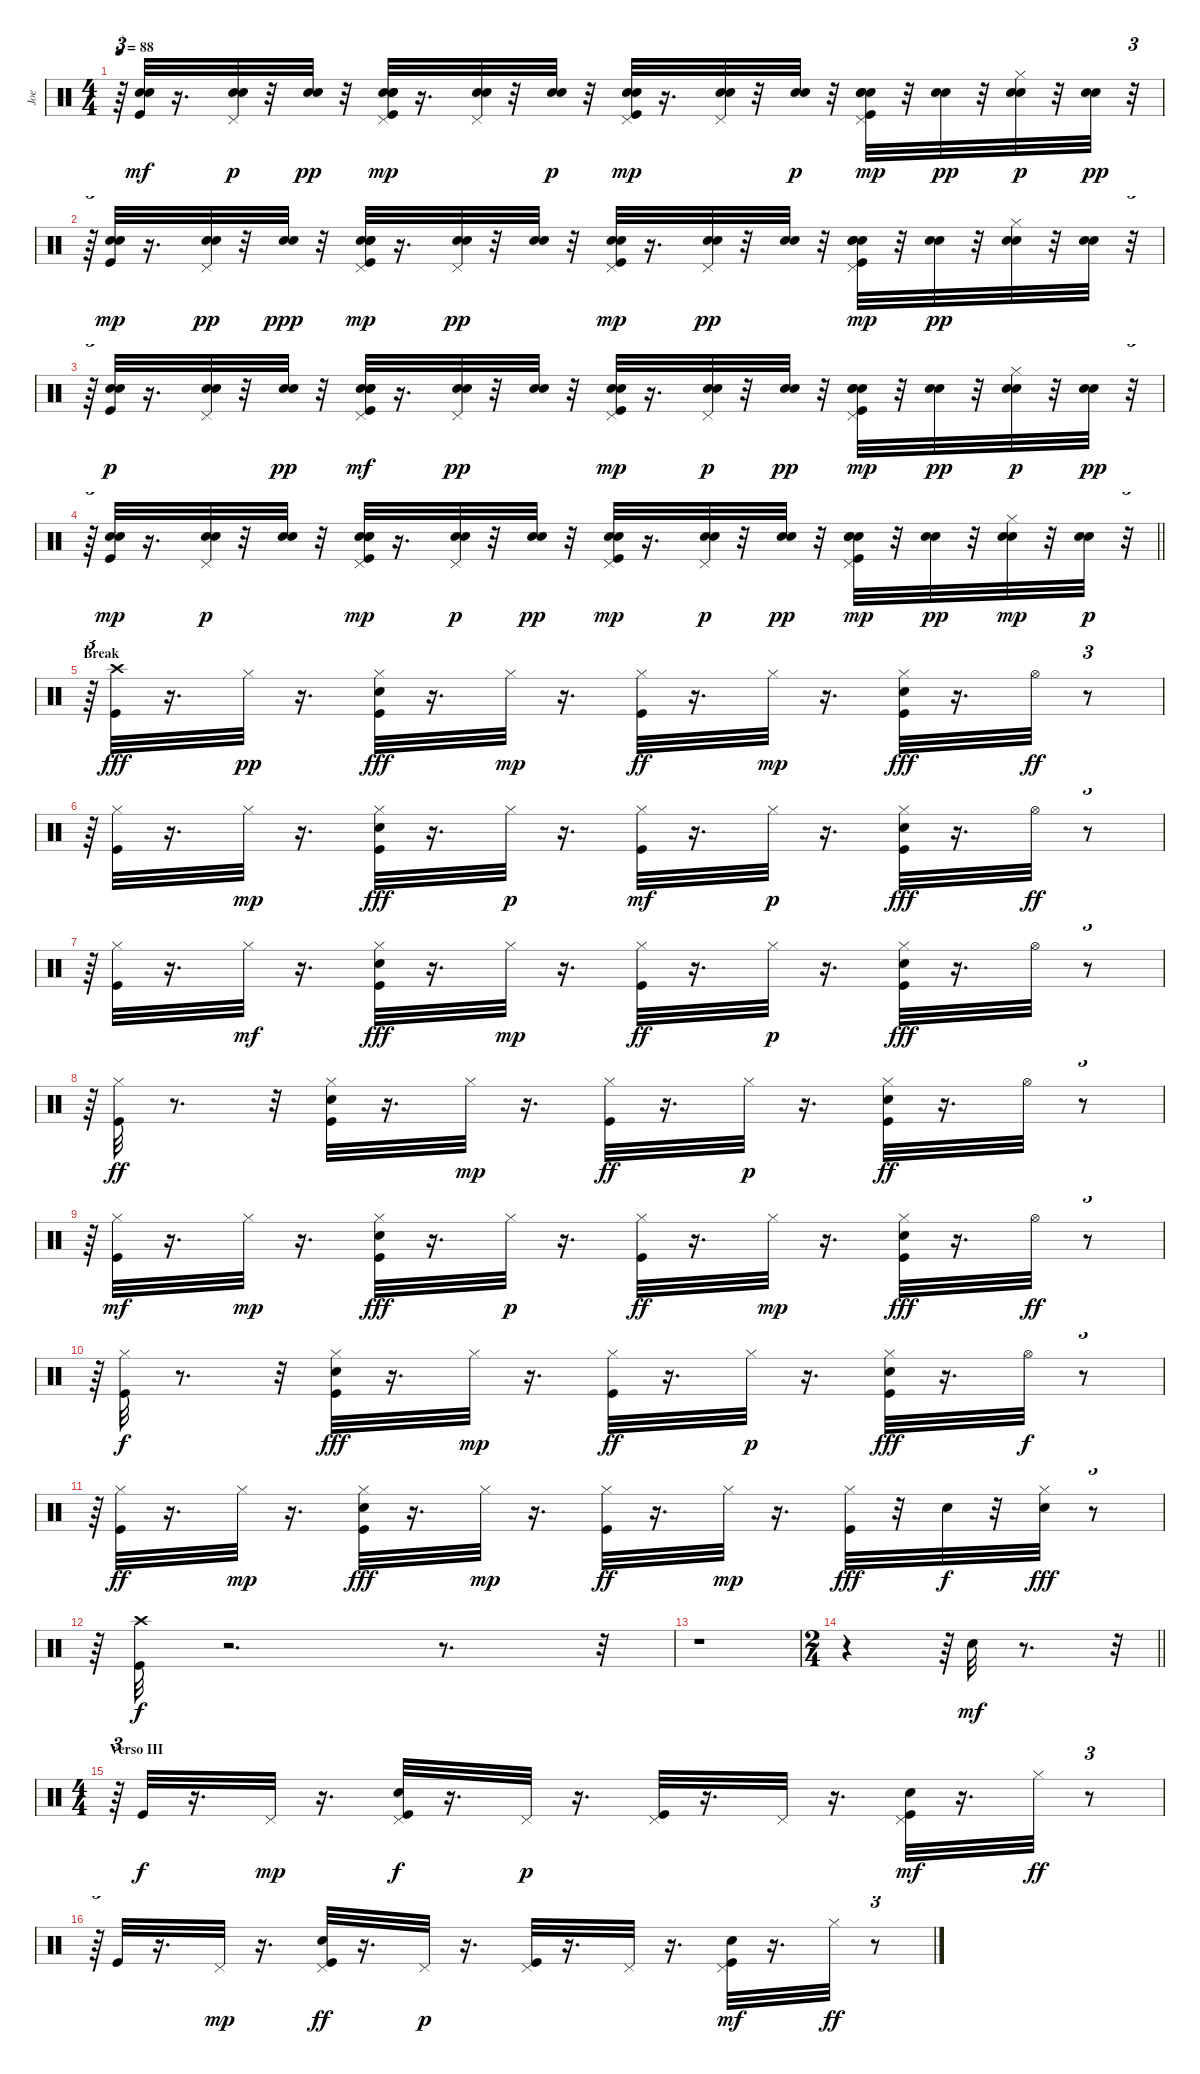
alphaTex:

\track ("Joe" "Joe") {instrument percussion}
\staff {score}
\articulation defaults
\ts (4 4)
\tempo 88
\clef neutral
\ks c
r.64{tu (3 2) dy mp} ("Kick (hit)" "Snare (hit) 2" "Snare (hit) 2").32{dy mf} r.16{d} ("Pedal Hi-Hat (hit)" "Snare (hit) 2" "Snare (hit) 2").32{dy p} r.32 ("Snare (hit) 2" "Snare (hit) 2").32{dy pp} r.32 ("Pedal Hi-Hat (hit)" "Kick (hit)" "Electric Snare (hit)" "Snare (hit) 2" "Snare (hit) 2").32{dy mp} r.16{d} ("Pedal Hi-Hat (hit)" "Snare (hit) 2" "Snare (hit) 2").32 r.32 ("Snare (hit) 2" "Snare (hit) 2").32{dy p} r.32 ("Kick (hit)" "Pedal Hi-Hat (hit)" "Snare (hit) 2" "Snare (hit) 2").32{dy mp} r.16{d} ("Pedal Hi-Hat (hit)" "Snare (hit) 2" "Snare (hit) 2").32 r.32 ("Snare (hit) 2" "Snare (hit) 2").32{dy p} r.32 ("Kick (hit)" "Electric Snare (hit)" "Pedal Hi-Hat (hit)" "Snare (hit) 2" "Snare (hit) 2").32{dy mp} r.32 ("Snare (hit) 2" "Snare (hit) 2").32{dy pp} r.32 ("Hi-Hat (closed)" "Snare (hit) 2" "Snare (hit) 2").32{dy p} r.32 ("Snare (hit) 2" "Snare (hit) 2").32{dy pp} r.32{tu (3 2)} |
r.64{tu (3 2)} ("Kick (hit)" "Snare (hit) 2" "Snare (hit) 2").32{dy mp} r.16{d} ("Pedal Hi-Hat (hit)" "Snare (hit) 2" "Snare (hit) 2").32{dy pp} r.32 ("Snare (hit) 2" "Snare (hit) 2").32{dy ppp} r.32 ("Pedal Hi-Hat (hit)" "Kick (hit)" "Electric Snare (hit)" "Snare (hit) 2" "Snare (hit) 2").32{dy mp} r.16{d} ("Pedal Hi-Hat (hit)" "Snare (hit) 2" "Snare (hit) 2").32{dy pp} r.32 ("Snare (hit) 2" "Snare (hit) 2").32 r.32 ("Kick (hit)" "Pedal Hi-Hat (hit)" "Snare (hit) 2" "Snare (hit) 2").32{dy mp} r.16{d} ("Pedal Hi-Hat (hit)" "Snare (hit) 2" "Snare (hit) 2").32{dy pp} r.32 ("Snare (hit) 2" "Snare (hit) 2").32 r.32 ("Kick (hit)" "Electric Snare (hit)" "Pedal Hi-Hat (hit)" "Snare (hit) 2" "Snare (hit) 2").32{dy mp} r.32 ("Snare (hit) 2" "Snare (hit) 2").32{dy pp} r.32 ("Hi-Hat (closed)" "Snare (hit) 2" "Snare (hit) 2").32 r.32 ("Snare (hit) 2" "Snare (hit) 2").32 r.32{tu (3 2)} |
r.64{tu (3 2)} ("Kick (hit)" "Snare (hit) 2" "Snare (hit) 2").32{dy p} r.16{d} ("Pedal Hi-Hat (hit)" "Snare (hit) 2" "Snare (hit) 2").32 r.32 ("Snare (hit) 2" "Snare (hit) 2").32{dy pp} r.32 ("Pedal Hi-Hat (hit)" "Kick (hit)" "Electric Snare (hit)" "Snare (hit) 2" "Snare (hit) 2").32{dy mf} r.16{d} ("Pedal Hi-Hat (hit)" "Snare (hit) 2" "Snare (hit) 2").32{dy pp} r.32 ("Snare (hit) 2" "Snare (hit) 2").32 r.32 ("Kick (hit)" "Pedal Hi-Hat (hit)" "Snare (hit) 2" "Snare (hit) 2").32{dy mp} r.16{d} ("Pedal Hi-Hat (hit)" "Snare (hit) 2" "Snare (hit) 2").32{dy p} r.32 ("Snare (hit) 2" "Snare (hit) 2").32{dy pp} r.32 ("Kick (hit)" "Electric Snare (hit)" "Pedal Hi-Hat (hit)" "Snare (hit) 2" "Snare (hit) 2").32{dy mp} r.32 ("Snare (hit) 2" "Snare (hit) 2").32{dy pp} r.32 ("Hi-Hat (closed)" "Snare (hit) 2" "Snare (hit) 2").32{dy p} r.32 ("Snare (hit) 2" "Snare (hit) 2").32{dy pp} r.32{tu (3 2)} |
\barLineRight lightlight
r.64{tu (3 2)} ("Kick (hit)" "Snare (hit) 2" "Snare (hit) 2").32{dy mp} r.16{d} ("Pedal Hi-Hat (hit)" "Snare (hit) 2" "Snare (hit) 2").32{dy p} r.32 ("Snare (hit) 2" "Snare (hit) 2").32 r.32 ("Pedal Hi-Hat (hit)" "Kick (hit)" "Electric Snare (hit)" "Snare (hit) 2" "Snare (hit) 2").32{dy mp} r.16{d} ("Pedal Hi-Hat (hit)" "Snare (hit) 2" "Snare (hit) 2").32{dy p} r.32 ("Snare (hit) 2" "Snare (hit) 2").32{dy pp} r.32 ("Kick (hit)" "Pedal Hi-Hat (hit)" "Snare (hit) 2" "Snare (hit) 2").32{dy mp} r.16{d} ("Pedal Hi-Hat (hit)" "Snare (hit) 2" "Snare (hit) 2").32{dy p} r.32 ("Snare (hit) 2" "Snare (hit) 2").32{dy pp} r.32 ("Kick (hit)" "Electric Snare (hit)" "Pedal Hi-Hat (hit)" "Snare (hit) 2" "Snare (hit) 2").32{dy mp} r.32 ("Snare (hit) 2" "Snare (hit) 2").32{dy pp} r.32 ("Hi-Hat (closed)" "Snare (hit) 2" "Snare (hit) 2").32{dy mp} r.32 ("Snare (hit) 2" "Snare (hit) 2").32{dy p} r.32{tu (3 2)} |
\section ("" "Break")
r.64{tu (3 2)} ("Kick (hit)" "Crash high (hit)").32{dy fff} r.16{d} "Hi-Hat (closed)".32{dy pp} r.16{d} ("Kick (hit)" "Electric Snare (hit)" "Hi-Hat (closed)").32{dy fff} r.16{d} "Hi-Hat (closed)".32{dy mp} r.16{d} ("Kick (hit)" "Hi-Hat (closed)").32{dy ff} r.16{d} "Hi-Hat (closed)".32{dy mp} r.16{d} ("Kick (hit)" "Electric Snare (hit)" "Hi-Hat (closed)").32{dy fff} r.16{d} "Hi-Hat (open)".32{dy ff} r.8{tu (3 2)} |
r.64{tu (3 2)} ("Kick (hit)" "Hi-Hat (closed)").32 r.16{d} "Hi-Hat (closed)".32{dy mp} r.16{d} ("Kick (hit)" "Hi-Hat (closed)" "Electric Snare (hit)").32{dy fff} r.16{d} "Hi-Hat (closed)".32{dy p} r.16{d} ("Kick (hit)" "Hi-Hat (closed)").32{dy mf} r.16{d} "Hi-Hat (closed)".32{dy p} r.16{d} ("Kick (hit)" "Electric Snare (hit)" "Hi-Hat (closed)").32{dy fff} r.16{d} "Hi-Hat (open)".32{dy ff} r.8{tu (3 2)} |
r.64{tu (3 2)} ("Kick (hit)" "Hi-Hat (closed)").32 r.16{d} "Hi-Hat (closed)".32{dy mf} r.16{d} ("Kick (hit)" "Electric Snare (hit)" "Hi-Hat (closed)").32{dy fff} r.16{d} "Hi-Hat (closed)".32{dy mp} r.16{d} ("Kick (hit)" "Hi-Hat (closed)").32{dy ff} r.16{d} "Hi-Hat (closed)".32{dy p} r.16{d} ("Hi-Hat (closed)" "Kick (hit)" "Electric Snare (hit)").32{dy fff} r.16{d} "Hi-Hat (open)".32 r.8{tu (3 2)} |
r.64{tu (3 2)} ("Kick (hit)" "Hi-Hat (closed)").32{dy ff} r.8{d} r.32 ("Hi-Hat (closed)" "Kick (hit)" "Electric Snare (hit)").32 r.16{d} "Hi-Hat (closed)".32{dy mp} r.16{d} ("Hi-Hat (closed)" "Kick (hit)").32{dy ff} r.16{d} "Hi-Hat (closed)".32{dy p} r.16{d} ("Kick (hit)" "Electric Snare (hit)" "Hi-Hat (closed)").32{dy ff} r.16{d} "Hi-Hat (open)".32 r.8{tu (3 2)} |
r.64{tu (3 2)} ("Kick (hit)" "Hi-Hat (closed)").32{dy mf} r.16{d} "Hi-Hat (closed)".32{dy mp} r.16{d} ("Kick (hit)" "Hi-Hat (closed)" "Electric Snare (hit)").32{dy fff} r.16{d} "Hi-Hat (closed)".32{dy p} r.16{d} ("Kick (hit)" "Hi-Hat (closed)").32{dy ff} r.16{d} "Hi-Hat (closed)".32{dy mp} r.16{d} ("Hi-Hat (closed)" "Kick (hit)" "Electric Snare (hit)").32{dy fff} r.16{d} "Hi-Hat (open)".32{dy ff} r.8{tu (3 2)} |
r.64{tu (3 2)} ("Hi-Hat (closed)" "Kick (hit)").32{dy f} r.8{d} r.32 ("Kick (hit)" "Electric Snare (hit)" "Hi-Hat (closed)").32{dy fff} r.16{d} "Hi-Hat (closed)".32{dy mp} r.16{d} ("Kick (hit)" "Hi-Hat (closed)").32{dy ff} r.16{d} "Hi-Hat (closed)".32{dy p} r.16{d} ("Hi-Hat (closed)" "Kick (hit)" "Electric Snare (hit)").32{dy fff} r.16{d} "Hi-Hat (open)".32{dy f} r.8{tu (3 2)} |
r.64{tu (3 2)} ("Hi-Hat (closed)" "Kick (hit)").32{dy ff} r.16{d} "Hi-Hat (closed)".32{dy mp} r.16{d} ("Kick (hit)" "Electric Snare (hit)" "Hi-Hat (closed)").32{dy fff} r.16{d} "Hi-Hat (closed)".32{dy mp} r.16{d} ("Kick (hit)" "Hi-Hat (closed)").32{dy ff} r.16{d} "Hi-Hat (closed)".32{dy mp} r.16{d} ("Kick (hit)" "Hi-Hat (closed)").32{dy fff} r.32 "Electric Snare (hit)".32{dy f} r.32 ("Hi-Hat (closed)" "Electric Snare (hit)").32{dy fff} r.8{tu (3 2)} |
r.64{tu (3 2)} ("Kick (hit)" "Crash high (hit)").32{dy f} r.2{d} r.8{d} r.32{tu (3 2)} |
r.1 |
\ts (2 4)
\barLineRight lightlight
r.4 r.64{tu (3 2)} "Electric Snare (hit)".32{dy mf} r.8{d} r.32{tu (3 2)} |
\ts (4 4)
\section ("" "Verso III")
r.64{tu (3 2)} "Kick (hit)".32{dy f} r.16{d} "Pedal Hi-Hat (hit)".32{dy mp} r.16{d} ("Pedal Hi-Hat (hit)" "Kick (hit)" "Electric Snare (hit)").32{dy f} r.16{d} "Pedal Hi-Hat (hit)".32{dy p} r.16{d} ("Kick (hit)" "Pedal Hi-Hat (hit)").32 r.16{d} "Pedal Hi-Hat (hit)".32 r.16{d} ("Kick (hit)" "Electric Snare (hit)" "Pedal Hi-Hat (hit)").32{dy mf} r.16{d} "Hi-Hat (closed)".32{dy ff} r.8{tu (3 2)} |
r.64{tu (3 2)} "Kick (hit)".32 r.16{d} "Pedal Hi-Hat (hit)".32{dy mp} r.16{d} ("Pedal Hi-Hat (hit)" "Kick (hit)" "Electric Snare (hit)").32{dy ff} r.16{d} "Pedal Hi-Hat (hit)".32{dy p} r.16{d} ("Kick (hit)" "Pedal Hi-Hat (hit)").32 r.16{d} "Pedal Hi-Hat (hit)".32 r.16{d} ("Kick (hit)" "Electric Snare (hit)" "Pedal Hi-Hat (hit)").32{dy mf} r.16{d} "Hi-Hat (closed)".32{dy ff} r.8{tu (3 2)}
